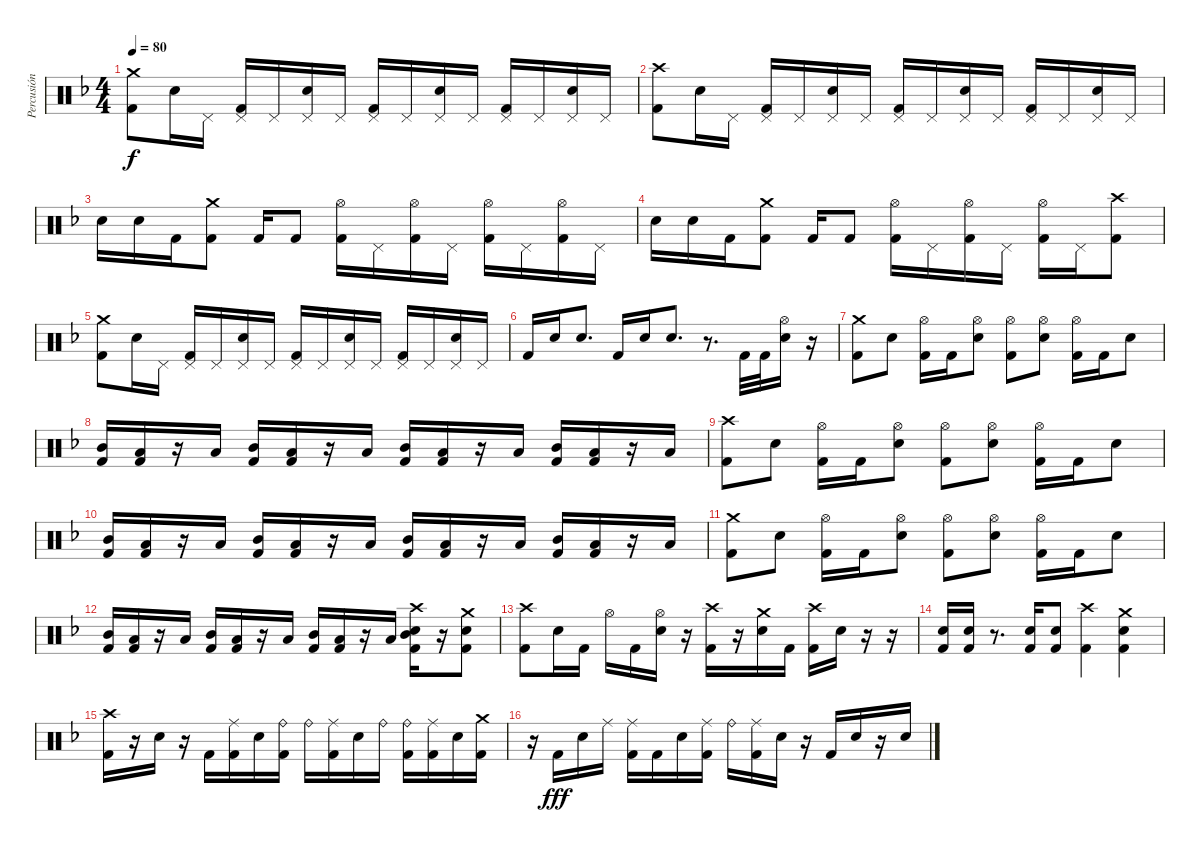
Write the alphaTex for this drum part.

\track ("Percusión" "Percusión") {instrument percussion}
\staff {score}
\articulation defaults
\ts (4 4)
\tempo 80
\clef neutral
\ks f
("Crash medium (hit)" "Kick (hit) 2").8{dy f} "Electric Snare (hit)".16 "Pedal Hi-Hat (hit)".16 ("Pedal Hi-Hat (hit)" "Kick (hit) 2").16 "Pedal Hi-Hat (hit)".16 ("Pedal Hi-Hat (hit)" "Electric Snare (hit)").16 "Pedal Hi-Hat (hit)".16 ("Pedal Hi-Hat (hit)" "Kick (hit) 2").16 "Pedal Hi-Hat (hit)".16 ("Pedal Hi-Hat (hit)" "Electric Snare (hit)").16 "Pedal Hi-Hat (hit)".16 ("Pedal Hi-Hat (hit)" "Kick (hit) 2").16 "Pedal Hi-Hat (hit)".16 ("Pedal Hi-Hat (hit)" "Electric Snare (hit)").16 "Pedal Hi-Hat (hit)".16 |
("Crash high (hit)" "Kick (hit) 2").8 "Electric Snare (hit)".16 "Pedal Hi-Hat (hit)".16 ("Pedal Hi-Hat (hit)" "Kick (hit) 2").16 "Pedal Hi-Hat (hit)".16 ("Pedal Hi-Hat (hit)" "Electric Snare (hit)").16 "Pedal Hi-Hat (hit)".16 ("Pedal Hi-Hat (hit)" "Kick (hit) 2").16 "Pedal Hi-Hat (hit)".16 ("Pedal Hi-Hat (hit)" "Electric Snare (hit)").16 "Pedal Hi-Hat (hit)".16 ("Pedal Hi-Hat (hit)" "Kick (hit) 2").16 "Pedal Hi-Hat (hit)".16 ("Pedal Hi-Hat (hit)" "Electric Snare (hit)").16 "Pedal Hi-Hat (hit)".16 |
"Electric Snare (hit)".16 "Electric Snare (hit)".16 "Kick (hit) 2".16 ("Crash medium (hit)" "Kick (hit) 2").8 "Kick (hit) 2".16 "Kick (hit) 2".8 ("Hi-Hat (open)" "Kick (hit) 2").16 "Pedal Hi-Hat (hit)".16 ("Hi-Hat (open)" "Kick (hit) 2").16 "Pedal Hi-Hat (hit)".16 ("Hi-Hat (open)" "Kick (hit) 2").16 "Pedal Hi-Hat (hit)".16 ("Hi-Hat (open)" "Kick (hit) 2").16 "Pedal Hi-Hat (hit)".16 |
"Electric Snare (hit)".16 "Electric Snare (hit)".16 "Kick (hit) 2".16 ("Crash medium (hit)" "Kick (hit) 2").8 "Kick (hit) 2".16 "Kick (hit) 2".8 ("Hi-Hat (open)" "Kick (hit) 2").16 "Pedal Hi-Hat (hit)".16 ("Hi-Hat (open)" "Kick (hit) 2").16 "Pedal Hi-Hat (hit)".16 ("Hi-Hat (open)" "Kick (hit) 2").16 "Pedal Hi-Hat (hit)".16 ("Crash high (hit)" "Kick (hit) 2").8 |
("Crash medium (hit)" "Kick (hit) 2").8 "Electric Snare (hit)".16 "Pedal Hi-Hat (hit)".16 ("Pedal Hi-Hat (hit)" "Kick (hit) 2").16 "Pedal Hi-Hat (hit)".16 ("Pedal Hi-Hat (hit)" "Electric Snare (hit)").16 "Pedal Hi-Hat (hit)".16 ("Pedal Hi-Hat (hit)" "Kick (hit) 2").16 "Pedal Hi-Hat (hit)".16 ("Pedal Hi-Hat (hit)" "Electric Snare (hit)").16 "Pedal Hi-Hat (hit)".16 ("Pedal Hi-Hat (hit)" "Kick (hit) 2").16 "Pedal Hi-Hat (hit)".16 ("Pedal Hi-Hat (hit)" "Electric Snare (hit)").16 "Pedal Hi-Hat (hit)".16 |
"Kick (hit) 2".16 "Electric Snare (hit)".16 "Electric Snare (hit)".8{d} "Kick (hit) 2".16 "Electric Snare (hit)".16 "Electric Snare (hit)".8{d} r.8{d} "Kick (hit) 2".32 "Kick (hit) 2".32 ("Hi-Hat (open)" "Electric Snare (hit)").16 r.16 |
("Crash medium (hit)" "Kick (hit) 2").8 "Electric Snare (hit)".8 ("Hi-Hat (open)" "Kick (hit) 2").16 "Kick (hit) 2".16 ("Hi-Hat (open)" "Electric Snare (hit)").8 ("Hi-Hat (open)" "Kick (hit) 2").8 ("Hi-Hat (open)" "Electric Snare (hit)").8 ("Hi-Hat (open)" "Kick (hit) 2").16 "Kick (hit) 2".16 "Electric Snare (hit)".8 |
("Mid Tom (hit)" "Kick (hit) 2").16 ("Low Tom (hit)" "Kick (hit) 2").16 r.16 "Low Tom (hit)".16 ("Mid Tom (hit)" "Kick (hit) 2").16 ("Low Tom (hit)" "Kick (hit) 2").16 r.16 "Low Tom (hit)".16 ("Mid Tom (hit)" "Kick (hit) 2").16 ("Low Tom (hit)" "Kick (hit) 2").16 r.16 "Low Tom (hit)".16 ("Mid Tom (hit)" "Kick (hit) 2").16 ("Low Tom (hit)" "Kick (hit) 2").16 r.16 "Low Tom (hit)".16 |
("Crash high (hit)" "Kick (hit) 2").8 "Electric Snare (hit)".8 ("Hi-Hat (open)" "Kick (hit) 2").16 "Kick (hit) 2".16 ("Hi-Hat (open)" "Electric Snare (hit)").8 ("Hi-Hat (open)" "Kick (hit) 2").8 ("Hi-Hat (open)" "Electric Snare (hit)").8 ("Hi-Hat (open)" "Kick (hit) 2").16 "Kick (hit) 2".16 "Electric Snare (hit)".8 |
("Mid Tom (hit)" "Kick (hit) 2").16 ("Low Tom (hit)" "Kick (hit) 2").16 r.16 "Low Tom (hit)".16 ("Mid Tom (hit)" "Kick (hit) 2").16 ("Low Tom (hit)" "Kick (hit) 2").16 r.16 "Low Tom (hit)".16 ("Mid Tom (hit)" "Kick (hit) 2").16 ("Low Tom (hit)" "Kick (hit) 2").16 r.16 "Low Tom (hit)".16 ("Mid Tom (hit)" "Kick (hit) 2").16 ("Low Tom (hit)" "Kick (hit) 2").16 r.16 "Low Tom (hit)".16 |
("Crash medium (hit)" "Kick (hit) 2").8 "Electric Snare (hit)".8 ("Hi-Hat (open)" "Kick (hit) 2").16 "Kick (hit) 2".16 ("Hi-Hat (open)" "Electric Snare (hit)").8 ("Hi-Hat (open)" "Kick (hit) 2").8 ("Hi-Hat (open)" "Electric Snare (hit)").8 ("Hi-Hat (open)" "Kick (hit) 2").16 "Kick (hit) 2".16 "Electric Snare (hit)".8 |
("Mid Tom (hit)" "Kick (hit) 2").16 ("Low Tom (hit)" "Kick (hit) 2").16 r.16 "Low Tom (hit)".16 ("Mid Tom (hit)" "Kick (hit) 2").16 ("Low Tom (hit)" "Kick (hit) 2").16 r.16 "Low Tom (hit)".16 ("Mid Tom (hit)" "Kick (hit) 2").16 ("Low Tom (hit)" "Kick (hit) 2").16 r.16 "Low Tom (hit)".16 ("Crash high (hit)" "Electric Snare (hit)" "Mid Tom (hit)" "Kick (hit) 2").16 r.16 ("Crash medium (hit)" "Electric Snare (hit)" "Kick (hit) 2").8 |
("Crash high (hit)" "Kick (hit) 2").8 "Electric Snare (hit)".16 "Kick (hit) 2".16 "Hi-Hat (open)".16 "Kick (hit) 2".16 ("Hi-Hat (open)" "Electric Snare (hit)").16 r.16 ("Crash high (hit)" "Kick (hit) 2").16 r.16 ("Crash medium (hit)" "Electric Snare (hit)").16 "Kick (hit) 2".16 ("Crash high (hit)" "Kick (hit) 2").16 "Electric Snare (hit)".16 r.16 r.16 |
("Electric Snare (hit)" "Kick (hit) 2").16 ("Electric Snare (hit)" "Kick (hit) 2").16 r.8{d} ("Electric Snare (hit)" "Kick (hit) 2").16 ("Electric Snare (hit)" "Kick (hit) 2").8 ("Crash high (hit)" "Kick (hit) 2").4 ("Crash medium (hit)" "Electric Snare (hit)" "Kick (hit) 2").4 |
("Crash high (hit)" "Kick (hit) 2").16 r.16 "Electric Snare (hit)".16 r.16 "Kick (hit) 2".16 ("Ride (middle)" "Kick (hit) 2").16 "Electric Snare (hit)".16 ("Ride (bell)" "Kick (hit) 2").16 "Ride (bell)".16 ("Ride (middle)" "Kick (hit) 2").16 "Electric Snare (hit)".16 "Ride (bell)".16 ("Ride (bell)" "Kick (hit) 2").16 ("Ride (middle)" "Kick (hit) 2").16 "Electric Snare (hit)".16 ("Crash medium (hit)" "Kick (hit) 2").16 |
r.16 "Kick (hit) 2".16{dy fff} "Electric Snare (hit)".16 "Ride (middle)".16 ("Ride (middle)" "Kick (hit) 2").16 "Kick (hit) 2".16 "Electric Snare (hit)".16 ("Ride (middle)" "Kick (hit) 2").16 "Ride (bell)".16 ("Ride (middle)" "Kick (hit) 2").16 "Electric Snare (hit)".16 r.16 "Kick (hit) 2".16 "Electric Snare (hit)".16 r.16 "Electric Snare (hit)".16
